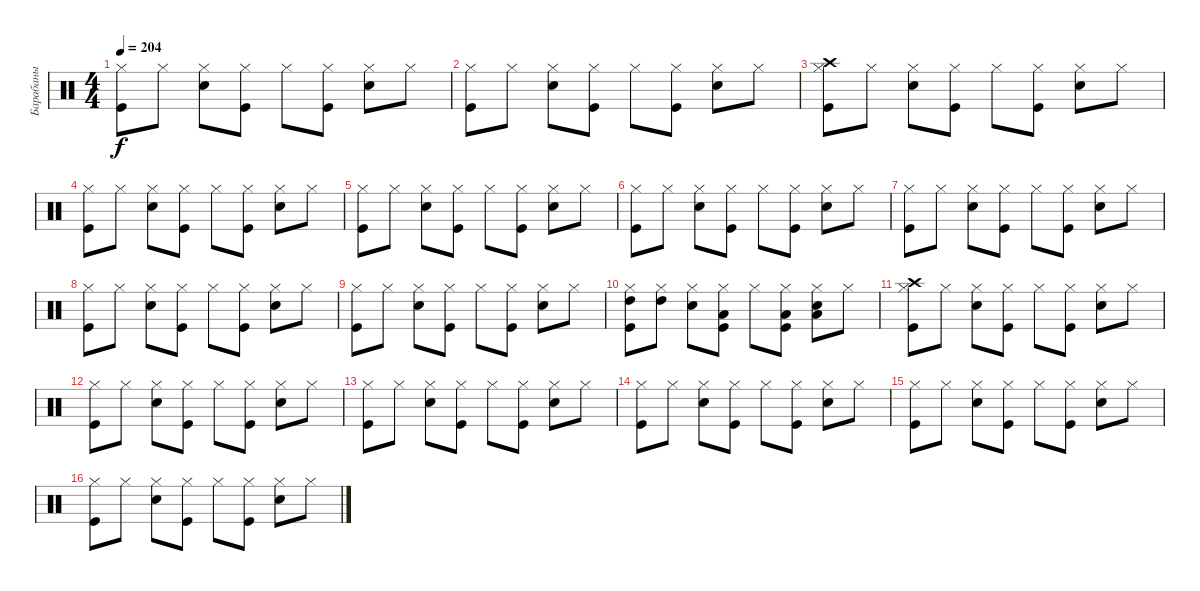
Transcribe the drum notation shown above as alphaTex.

\track ("Барабаны" "Барабаны") {instrument percussion}
\staff {score}
\articulation defaults
\ts (4 4)
\tempo 204
\clef neutral
\ks c
("Kick (hit)" "Hi-Hat (closed)").8{dy f} "Hi-Hat (closed)".8 ("Snare (hit) 2" "Hi-Hat (closed)").8 ("Kick (hit)" "Hi-Hat (closed)").8 "Hi-Hat (closed)".8 ("Kick (hit)" "Hi-Hat (closed)").8 ("Snare (hit) 2" "Hi-Hat (closed)").8 "Hi-Hat (closed)".8 |
("Kick (hit)" "Hi-Hat (closed)").8 "Hi-Hat (closed)".8 ("Snare (hit) 2" "Hi-Hat (closed)").8 ("Kick (hit)" "Hi-Hat (closed)").8 "Hi-Hat (closed)".8 ("Kick (hit)" "Hi-Hat (closed)").8 ("Snare (hit) 2" "Hi-Hat (closed)").8 "Hi-Hat (closed)".8 |
("Kick (hit)" "Hi-Hat (closed)" "Crash high (hit)").8 "Hi-Hat (closed)".8 ("Snare (hit) 2" "Hi-Hat (closed)").8 ("Kick (hit)" "Hi-Hat (closed)").8 "Hi-Hat (closed)".8 ("Kick (hit)" "Hi-Hat (closed)").8 ("Snare (hit) 2" "Hi-Hat (closed)").8 "Hi-Hat (closed)".8 |
("Kick (hit)" "Hi-Hat (closed)").8 "Hi-Hat (closed)".8 ("Snare (hit) 2" "Hi-Hat (closed)").8 ("Kick (hit)" "Hi-Hat (closed)").8 "Hi-Hat (closed)".8 ("Kick (hit)" "Hi-Hat (closed)").8 ("Snare (hit) 2" "Hi-Hat (closed)").8 "Hi-Hat (closed)".8 |
("Kick (hit)" "Hi-Hat (closed)").8 "Hi-Hat (closed)".8 ("Snare (hit) 2" "Hi-Hat (closed)").8 ("Kick (hit)" "Hi-Hat (closed)").8 "Hi-Hat (closed)".8 ("Kick (hit)" "Hi-Hat (closed)").8 ("Snare (hit) 2" "Hi-Hat (closed)").8 "Hi-Hat (closed)".8 |
("Kick (hit)" "Hi-Hat (closed)").8 "Hi-Hat (closed)".8 ("Snare (hit) 2" "Hi-Hat (closed)").8 ("Kick (hit)" "Hi-Hat (closed)").8 "Hi-Hat (closed)".8 ("Kick (hit)" "Hi-Hat (closed)").8 ("Snare (hit) 2" "Hi-Hat (closed)").8 "Hi-Hat (closed)".8 |
("Kick (hit)" "Hi-Hat (closed)").8 "Hi-Hat (closed)".8 ("Snare (hit) 2" "Hi-Hat (closed)").8 ("Kick (hit)" "Hi-Hat (closed)").8 "Hi-Hat (closed)".8 ("Kick (hit)" "Hi-Hat (closed)").8 ("Snare (hit) 2" "Hi-Hat (closed)").8 "Hi-Hat (closed)".8 |
("Kick (hit)" "Hi-Hat (closed)").8 "Hi-Hat (closed)".8 ("Snare (hit) 2" "Hi-Hat (closed)").8 ("Kick (hit)" "Hi-Hat (closed)").8 "Hi-Hat (closed)".8 ("Kick (hit)" "Hi-Hat (closed)").8 ("Snare (hit) 2" "Hi-Hat (closed)").8 "Hi-Hat (closed)".8 |
("Kick (hit)" "Hi-Hat (closed)").8 "Hi-Hat (closed)".8 ("Snare (hit) 2" "Hi-Hat (closed)").8 ("Kick (hit)" "Hi-Hat (closed)").8 "Hi-Hat (closed)".8 ("Kick (hit)" "Hi-Hat (closed)").8 ("Snare (hit) 2" "Hi-Hat (closed)").8 "Hi-Hat (closed)".8 |
("Kick (hit)" "Hi-Hat (closed)" "High Tom (hit)").8 ("Hi-Hat (closed)" "High Tom (hit)").8 ("Snare (hit) 2" "Hi-Hat (closed)").8 ("Kick (hit)" "Hi-Hat (closed)" "Low Tom (hit)").8 "Hi-Hat (closed)".8 ("Kick (hit)" "Hi-Hat (closed)" "Low Tom (hit)").8 ("Snare (hit) 2" "Hi-Hat (closed)" "Low Tom (hit)").8 "Hi-Hat (closed)".8 |
("Kick (hit)" "Hi-Hat (closed)" "Crash high (hit)").8 "Hi-Hat (closed)".8 ("Snare (hit) 2" "Hi-Hat (closed)").8 ("Kick (hit)" "Hi-Hat (closed)").8 "Hi-Hat (closed)".8 ("Kick (hit)" "Hi-Hat (closed)").8 ("Snare (hit) 2" "Hi-Hat (closed)").8 "Hi-Hat (closed)".8 |
("Kick (hit)" "Hi-Hat (closed)").8 "Hi-Hat (closed)".8 ("Snare (hit) 2" "Hi-Hat (closed)").8 ("Kick (hit)" "Hi-Hat (closed)").8 "Hi-Hat (closed)".8 ("Kick (hit)" "Hi-Hat (closed)").8 ("Snare (hit) 2" "Hi-Hat (closed)").8 "Hi-Hat (closed)".8 |
("Kick (hit)" "Hi-Hat (closed)").8 "Hi-Hat (closed)".8 ("Snare (hit) 2" "Hi-Hat (closed)").8 ("Kick (hit)" "Hi-Hat (closed)").8 "Hi-Hat (closed)".8 ("Kick (hit)" "Hi-Hat (closed)").8 ("Snare (hit) 2" "Hi-Hat (closed)").8 "Hi-Hat (closed)".8 |
("Kick (hit)" "Hi-Hat (closed)").8 "Hi-Hat (closed)".8 ("Snare (hit) 2" "Hi-Hat (closed)").8 ("Kick (hit)" "Hi-Hat (closed)").8 "Hi-Hat (closed)".8 ("Kick (hit)" "Hi-Hat (closed)").8 ("Snare (hit) 2" "Hi-Hat (closed)").8 "Hi-Hat (closed)".8 |
("Kick (hit)" "Hi-Hat (closed)").8 "Hi-Hat (closed)".8 ("Snare (hit) 2" "Hi-Hat (closed)").8 ("Kick (hit)" "Hi-Hat (closed)").8 "Hi-Hat (closed)".8 ("Kick (hit)" "Hi-Hat (closed)").8 ("Snare (hit) 2" "Hi-Hat (closed)").8 "Hi-Hat (closed)".8 |
("Kick (hit)" "Hi-Hat (closed)").8 "Hi-Hat (closed)".8 ("Snare (hit) 2" "Hi-Hat (closed)").8 ("Kick (hit)" "Hi-Hat (closed)").8 "Hi-Hat (closed)".8 ("Kick (hit)" "Hi-Hat (closed)").8 ("Snare (hit) 2" "Hi-Hat (closed)").8 "Hi-Hat (closed)".8
